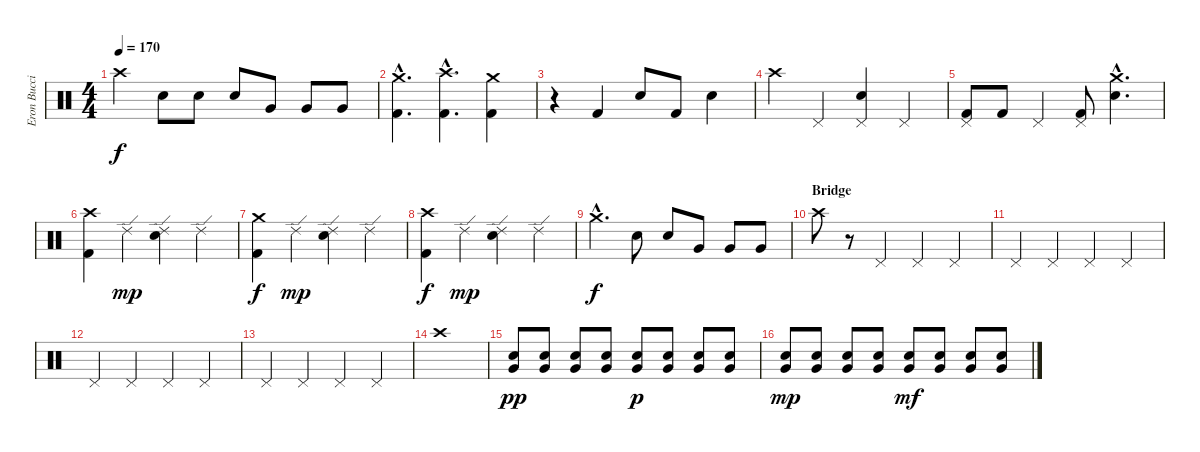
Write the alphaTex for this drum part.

\track ("Eron Bucciarelli (Drums)" "Eron Bucci") {instrument percussion}
\staff {score}
\articulation defaults
\ts (4 4)
\tempo 170
\clef neutral
\ks c "Crash high (hit)".4{dy f} "Snare (hit) 2".8 "Snare (hit) 2".8 "Snare (hit) 2".8 "Very Low Tom (hit)".8 "Very Low Tom (hit)".8 "Very Low Tom (hit)".8
|
("Crash medium (hit)"{hac} "Kick (hit) 2"{hac}).4{d} ("Crash high (hit)"{hac} "Kick (hit) 2"{hac}).4{d} ("Crash medium (hit)" "Kick (hit) 2").4 |
r.4 "Kick (hit) 2".4 "Snare (hit) 2".8 "Kick (hit) 2".8 "Snare (hit) 2".4 |
"Crash high (hit)".4 "Pedal Hi-Hat (hit)".4 ("Pedal Hi-Hat (hit)" "Snare (hit) 2").4 "Pedal Hi-Hat (hit)".4 |
("Pedal Hi-Hat (hit)" "Kick (hit) 2").8 "Kick (hit) 2".8 "Pedal Hi-Hat (hit)".4 ("Pedal Hi-Hat (hit)" "Kick (hit) 2").8 ("Crash medium (hit)"{hac} "Snare (hit) 2"{hac}).4{d} |
("Crash high (hit)" "Kick (hit) 2").4 "Ride (edge) 2".4{dy mp} ("Ride (edge) 2" "Snare (hit) 2").4 "Ride (edge) 2".4 |
("Crash medium (hit)" "Kick (hit) 2").4{dy f} "Ride (edge) 2".4{dy mp} ("Ride (edge) 2" "Snare (hit) 2").4 "Ride (edge) 2".4 |
("Crash high (hit)" "Kick (hit) 2").4{dy f} "Ride (edge) 2".4{dy mp} ("Ride (edge) 2" "Snare (hit) 2").4 "Ride (edge) 2".4 |
"Crash medium (hit)"{hac}.4{d dy f} "Snare (hit) 2".8 "Snare (hit) 2".8 "Very Low Tom (hit)".8 "Very Low Tom (hit)".8 "Very Low Tom (hit)".8 |
\section ("" "Bridge")
"Crash high (hit)".8 r.8 "Pedal Hi-Hat (hit)".4 "Pedal Hi-Hat (hit)".4 "Pedal Hi-Hat (hit)".4 |
"Pedal Hi-Hat (hit)".4 "Pedal Hi-Hat (hit)".4 "Pedal Hi-Hat (hit)".4 "Pedal Hi-Hat (hit)".4 |
"Pedal Hi-Hat (hit)".4 "Pedal Hi-Hat (hit)".4 "Pedal Hi-Hat (hit)".4 "Pedal Hi-Hat (hit)".4 |
"Pedal Hi-Hat (hit)".4 "Pedal Hi-Hat (hit)".4 "Pedal Hi-Hat (hit)".4 "Pedal Hi-Hat (hit)".4 |
"Crash high (hit)".1 |
("Snare (hit) 2" "Very Low Tom (hit)").8{dy pp} ("Snare (hit) 2" "Very Low Tom (hit)").8 ("Snare (hit) 2" "Very Low Tom (hit)").8 ("Snare (hit) 2" "Very Low Tom (hit)").8 ("Snare (hit) 2" "Very Low Tom (hit)").8{dy p} ("Snare (hit) 2" "Very Low Tom (hit)").8 ("Snare (hit) 2" "Very Low Tom (hit)").8 ("Snare (hit) 2" "Very Low Tom (hit)").8 |
("Snare (hit) 2" "Very Low Tom (hit)").8{dy mp} ("Snare (hit) 2" "Very Low Tom (hit)").8 ("Snare (hit) 2" "Very Low Tom (hit)").8 ("Snare (hit) 2" "Very Low Tom (hit)").8 ("Snare (hit) 2" "Very Low Tom (hit)").8{dy mf} ("Snare (hit) 2" "Very Low Tom (hit)").8 ("Snare (hit) 2" "Very Low Tom (hit)").8 ("Snare (hit) 2" "Very Low Tom (hit)").8
